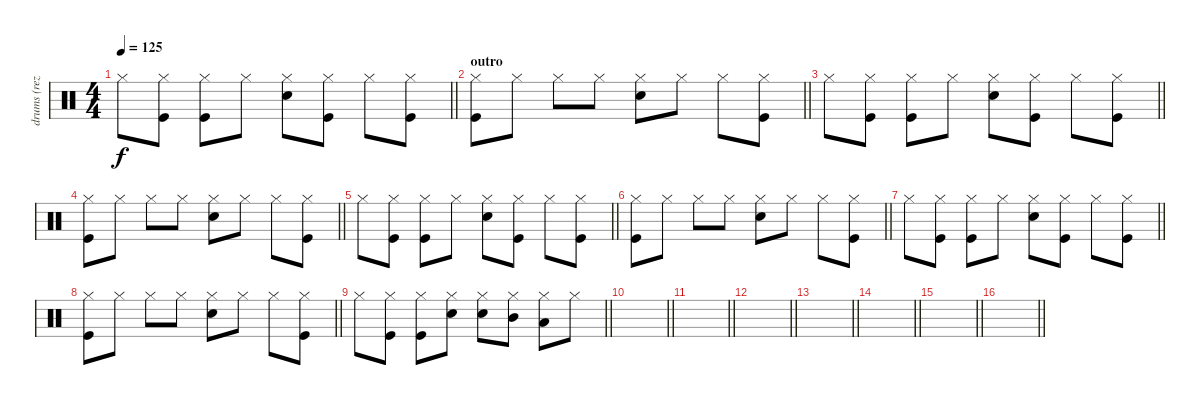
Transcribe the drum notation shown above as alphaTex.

\track ("drums (reza)" "drums (rez") {instrument percussion}
\staff {score}
\articulation defaults
\ts (4 4)
\tempo 125
\clef neutral
\barLineRight lightlight
\ks c "Hi-Hat (closed)".8{dy f}
("Hi-Hat (closed)" "Kick (hit)").8 ("Hi-Hat (closed)" "Kick (hit)").8 "Hi-Hat (closed)".8 ("Hi-Hat (closed)" "Snare (hit) 2").8 ("Hi-Hat (closed)" "Kick (hit)").8 "Hi-Hat (closed)".8 ("Hi-Hat (closed)" "Kick (hit)").8 |
\section ("" "outro")
\barLineRight lightlight
("Hi-Hat (closed)" "Kick (hit)").8 "Hi-Hat (closed)".8 "Hi-Hat (closed)".8 "Hi-Hat (closed)".8 ("Hi-Hat (closed)" "Snare (hit) 2").8 "Hi-Hat (closed)".8 "Hi-Hat (closed)".8 ("Hi-Hat (closed)" "Kick (hit)").8 |
\barLineRight lightlight "Hi-Hat (closed)".8
("Hi-Hat (closed)" "Kick (hit)").8 ("Hi-Hat (closed)" "Kick (hit)").8 "Hi-Hat (closed)".8 ("Hi-Hat (closed)" "Snare (hit) 2").8 ("Hi-Hat (closed)" "Kick (hit)").8 "Hi-Hat (closed)".8 ("Hi-Hat (closed)" "Kick (hit)").8 |
\barLineRight lightlight
("Hi-Hat (closed)" "Kick (hit)").8 "Hi-Hat (closed)".8 "Hi-Hat (closed)".8 "Hi-Hat (closed)".8 ("Hi-Hat (closed)" "Snare (hit) 2").8 "Hi-Hat (closed)".8 "Hi-Hat (closed)".8 ("Hi-Hat (closed)" "Kick (hit)").8 |
\barLineRight lightlight "Hi-Hat (closed)".8
("Hi-Hat (closed)" "Kick (hit)").8 ("Hi-Hat (closed)" "Kick (hit)").8 "Hi-Hat (closed)".8 ("Hi-Hat (closed)" "Snare (hit) 2").8 ("Hi-Hat (closed)" "Kick (hit)").8 "Hi-Hat (closed)".8 ("Hi-Hat (closed)" "Kick (hit)").8 |
\barLineRight lightlight
("Hi-Hat (closed)" "Kick (hit)").8 "Hi-Hat (closed)".8 "Hi-Hat (closed)".8 "Hi-Hat (closed)".8 ("Hi-Hat (closed)" "Snare (hit) 2").8 "Hi-Hat (closed)".8 "Hi-Hat (closed)".8 ("Hi-Hat (closed)" "Kick (hit)").8 |
\barLineRight lightlight "Hi-Hat (closed)".8
("Hi-Hat (closed)" "Kick (hit)").8 ("Hi-Hat (closed)" "Kick (hit)").8 "Hi-Hat (closed)".8 ("Hi-Hat (closed)" "Snare (hit) 2").8 ("Hi-Hat (closed)" "Kick (hit)").8 "Hi-Hat (closed)".8 ("Hi-Hat (closed)" "Kick (hit)").8 |
\barLineRight lightlight
("Hi-Hat (closed)" "Kick (hit)").8 "Hi-Hat (closed)".8 "Hi-Hat (closed)".8 "Hi-Hat (closed)".8 ("Hi-Hat (closed)" "Snare (hit) 2").8 "Hi-Hat (closed)".8 "Hi-Hat (closed)".8 ("Hi-Hat (closed)" "Kick (hit)").8 |
\barLineRight lightlight "Hi-Hat (closed)".8
("Hi-Hat (closed)" "Kick (hit)").8 ("Hi-Hat (closed)" "Kick (hit)").8 ("Hi-Hat (closed)" "Snare (hit) 2").8 ("Hi-Hat (closed)" "Snare (hit) 2").8 ("Hi-Hat (closed)" "Mid Tom (hit)").8 ("Hi-Hat (closed)" "Low Tom (hit)").8 "Hi-Hat (closed)".8 |
\barLineRight lightlight
|
\barLineRight lightlight
|
\barLineRight lightlight
|
\barLineRight lightlight
|
\barLineRight lightlight
|
\barLineRight lightlight
|
\barLineRight lightlight
